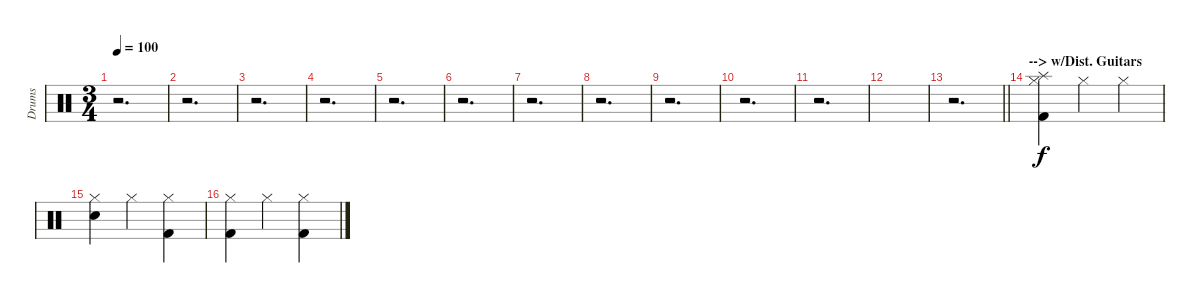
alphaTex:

\track ("Drums" "Drums") {instrument percussion}
\staff {score}
\articulation defaults
\ts (3 4)
\tempo 100
\clef neutral
\ks c
r.2{d dy f} |
r.2{d} |
r.2{d} |
r.2{d} |
r.2{d} |
r.2{d} |
r.2{d} |
r.2{d} |
r.2{d} |
r.2{d} |
r.2{d} |
|
\barLineRight lightlight
r.2{d} |
\section ("" "--> w/Dist. Guitars")
("Hi-Hat (closed)" "Splash (hit)" "Kick (hit) 2").4 "Hi-Hat (closed)".4 "Hi-Hat (closed)".4 |
("Hi-Hat (closed)" "Electric Snare (hit)").4 "Hi-Hat (closed)".4 ("Hi-Hat (closed)" "Kick (hit) 2").4 |
("Hi-Hat (closed)" "Kick (hit) 2").4 "Hi-Hat (closed)".4 ("Hi-Hat (closed)" "Kick (hit) 2").4
